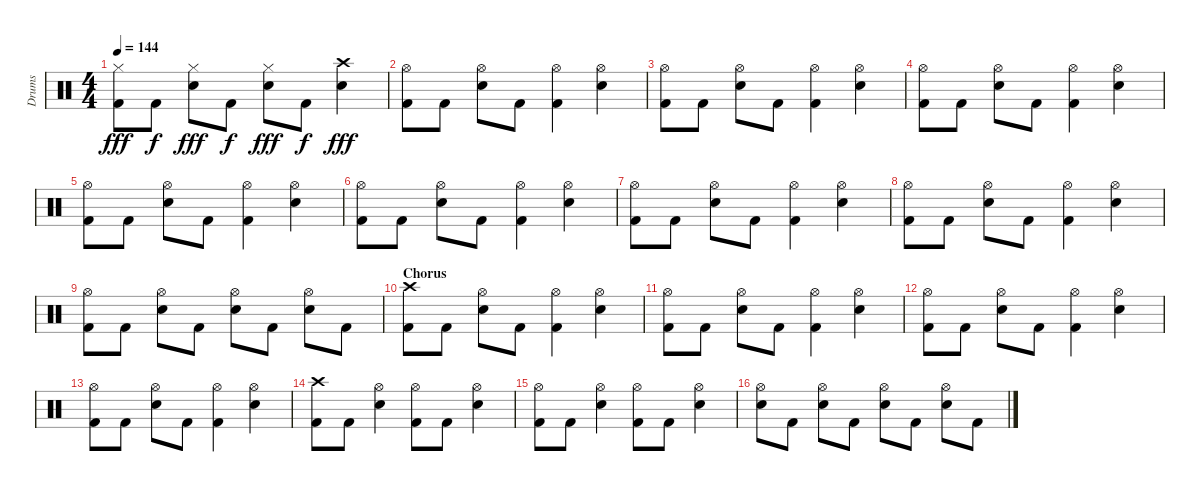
\track ("Drums" "Drums") {instrument percussion}
\staff {score}
\articulation defaults
\ts (4 4)
\tempo 144
\clef neutral
\ks c
("Hi-Hat (closed)" "Kick (hit) 2").8{dy fff} "Kick (hit) 2".8{dy f} ("Hi-Hat (closed)" "Snare (hit) 2").8{dy fff} "Kick (hit) 2".8{dy f} ("Hi-Hat (closed)" "Snare (hit) 2").8{dy fff} "Kick (hit) 2".8{dy f} ("Crash high (hit)" "Snare (hit) 2").4{dy fff} |
("Hi-Hat (open)" "Kick (hit) 2").8 "Kick (hit) 2".8 ("Hi-Hat (open)" "Snare (hit) 2").8 "Kick (hit) 2".8 ("Hi-Hat (open)" "Kick (hit) 2").4 ("Hi-Hat (open)" "Snare (hit) 2").4 |
("Hi-Hat (open)" "Kick (hit) 2").8 "Kick (hit) 2".8 ("Hi-Hat (open)" "Snare (hit) 2").8 "Kick (hit) 2".8 ("Hi-Hat (open)" "Kick (hit) 2").4 ("Hi-Hat (open)" "Snare (hit) 2").4 |
("Hi-Hat (open)" "Kick (hit) 2").8 "Kick (hit) 2".8 ("Hi-Hat (open)" "Snare (hit) 2").8 "Kick (hit) 2".8 ("Hi-Hat (open)" "Kick (hit) 2").4 ("Hi-Hat (open)" "Snare (hit) 2").4 |
("Hi-Hat (open)" "Kick (hit) 2").8 "Kick (hit) 2".8 ("Hi-Hat (open)" "Snare (hit) 2").8 "Kick (hit) 2".8 ("Hi-Hat (open)" "Kick (hit) 2").4 ("Hi-Hat (open)" "Snare (hit) 2").4 |
("Hi-Hat (open)" "Kick (hit) 2").8 "Kick (hit) 2".8 ("Hi-Hat (open)" "Snare (hit) 2").8 "Kick (hit) 2".8 ("Hi-Hat (open)" "Kick (hit) 2").4 ("Hi-Hat (open)" "Snare (hit) 2").4 |
("Hi-Hat (open)" "Kick (hit) 2").8 "Kick (hit) 2".8 ("Hi-Hat (open)" "Snare (hit) 2").8 "Kick (hit) 2".8 ("Hi-Hat (open)" "Kick (hit) 2").4 ("Hi-Hat (open)" "Snare (hit) 2").4 |
("Hi-Hat (open)" "Kick (hit) 2").8 "Kick (hit) 2".8 ("Hi-Hat (open)" "Snare (hit) 2").8 "Kick (hit) 2".8 ("Hi-Hat (open)" "Kick (hit) 2").4 ("Hi-Hat (open)" "Snare (hit) 2").4 |
("Hi-Hat (open)" "Kick (hit) 2").8 "Kick (hit) 2".8 ("Hi-Hat (open)" "Snare (hit) 2").8 "Kick (hit) 2".8 ("Hi-Hat (open)" "Snare (hit) 2").8 "Kick (hit) 2".8 ("Hi-Hat (open)" "Snare (hit) 2").8 "Kick (hit) 2".8 |
\section ("" "Chorus")
("Crash high (hit)" "Kick (hit) 2").8 "Kick (hit) 2".8 ("Hi-Hat (open)" "Snare (hit) 2").8 "Kick (hit) 2".8 ("Hi-Hat (open)" "Kick (hit) 2").4 ("Hi-Hat (open)" "Snare (hit) 2").4 |
("Hi-Hat (open)" "Kick (hit) 2").8 "Kick (hit) 2".8 ("Hi-Hat (open)" "Snare (hit) 2").8 "Kick (hit) 2".8 ("Hi-Hat (open)" "Kick (hit) 2").4 ("Hi-Hat (open)" "Snare (hit) 2").4 |
("Hi-Hat (open)" "Kick (hit) 2").8 "Kick (hit) 2".8 ("Hi-Hat (open)" "Snare (hit) 2").8 "Kick (hit) 2".8 ("Hi-Hat (open)" "Kick (hit) 2").4 ("Hi-Hat (open)" "Snare (hit) 2").4 |
("Hi-Hat (open)" "Kick (hit) 2").8 "Kick (hit) 2".8 ("Hi-Hat (open)" "Snare (hit) 2").8 "Kick (hit) 2".8 ("Hi-Hat (open)" "Kick (hit) 2").4 ("Hi-Hat (open)" "Snare (hit) 2").4 |
("Crash high (hit)" "Kick (hit) 2").8 "Kick (hit) 2".8 ("Hi-Hat (open)" "Snare (hit) 2").4 ("Hi-Hat (open)" "Kick (hit) 2").8 "Kick (hit) 2".8 ("Hi-Hat (open)" "Snare (hit) 2").4 |
("Hi-Hat (open)" "Kick (hit) 2").8 "Kick (hit) 2".8 ("Hi-Hat (open)" "Snare (hit) 2").4 ("Hi-Hat (open)" "Kick (hit) 2").8 "Kick (hit) 2".8 ("Hi-Hat (open)" "Snare (hit) 2").4 |
("Hi-Hat (open)" "Snare (hit) 2").8 "Kick (hit) 2".8 ("Hi-Hat (open)" "Snare (hit) 2").8 "Kick (hit) 2".8 ("Hi-Hat (open)" "Snare (hit) 2").8 "Kick (hit) 2".8 ("Hi-Hat (open)" "Snare (hit) 2").8 "Kick (hit) 2".8
